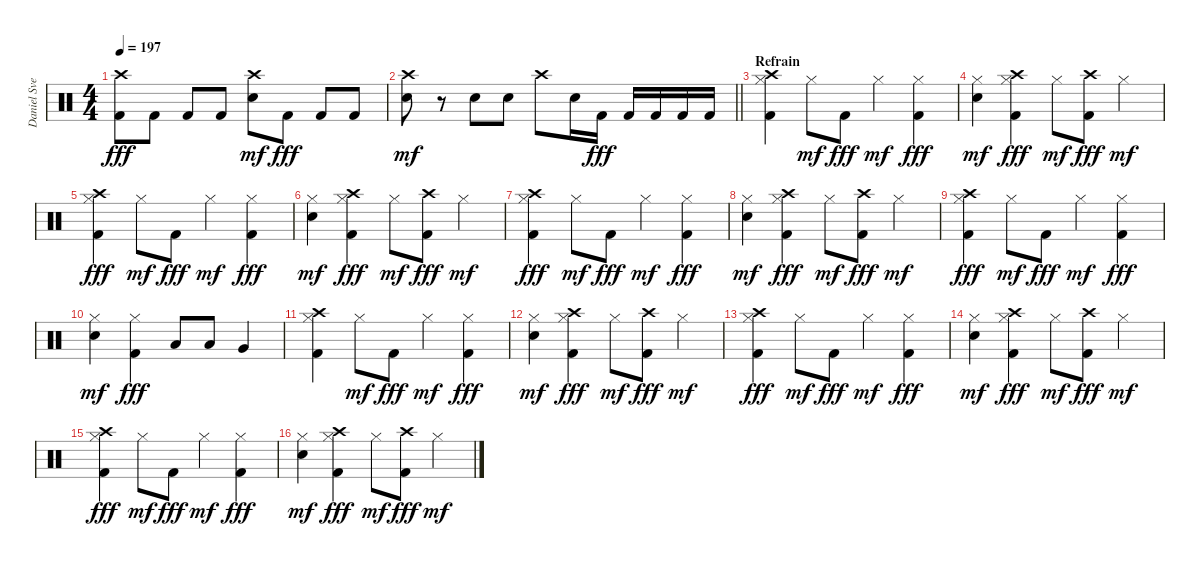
\track ("Daniel Svensson" "Daniel Sve") {instrument percussion}
\staff {score}
\articulation defaults
\ts (4 4)
\tempo 197
\clef neutral
\ks c
("Crash high (hit)" "Kick (hit) 2").8{dy fff} "Kick (hit) 2".8 "Kick (hit) 2".8 "Kick (hit) 2".8 ("Crash high (hit)" "Electric Snare (hit)").8{dy mf} "Kick (hit) 2".8{dy fff} "Kick (hit) 2".8 "Kick (hit) 2".8 |
\barLineRight lightlight
("Crash high (hit)" "Electric Snare (hit)").8{dy mf} r.8 "Electric Snare (hit)".8 "Electric Snare (hit)".8 "Crash high (hit)".8 "Electric Snare (hit)".16 "Kick (hit) 2".16{dy fff} "Kick (hit) 2".16 "Kick (hit) 2".16 "Kick (hit) 2".16 "Kick (hit) 2".16 |
\section ("" "Refrain")
("Crash high (hit)" "Hi-Hat (closed)" "Kick (hit) 2").4 "Hi-Hat (closed)".8{dy mf} "Kick (hit) 2".8{dy fff} "Hi-Hat (closed)".4{dy mf} ("Hi-Hat (closed)" "Kick (hit) 2").4{dy fff} |
("Hi-Hat (closed)" "Electric Snare (hit)").4{dy mf} ("Crash high (hit)" "Hi-Hat (closed)" "Kick (hit) 2").4{dy fff} "Hi-Hat (closed)".8{dy mf} ("Crash high (hit)" "Kick (hit) 2").8{dy fff} "Hi-Hat (closed)".4{dy mf} |
("Crash high (hit)" "Hi-Hat (closed)" "Kick (hit) 2").4{dy fff} "Hi-Hat (closed)".8{dy mf} "Kick (hit) 2".8{dy fff} "Hi-Hat (closed)".4{dy mf} ("Hi-Hat (closed)" "Kick (hit) 2").4{dy fff} |
("Hi-Hat (closed)" "Electric Snare (hit)").4{dy mf} ("Crash high (hit)" "Hi-Hat (closed)" "Kick (hit) 2").4{dy fff} "Hi-Hat (closed)".8{dy mf} ("Crash high (hit)" "Kick (hit) 2").8{dy fff} "Hi-Hat (closed)".4{dy mf} |
("Crash high (hit)" "Hi-Hat (closed)" "Kick (hit) 2").4{dy fff} "Hi-Hat (closed)".8{dy mf} "Kick (hit) 2".8{dy fff} "Hi-Hat (closed)".4{dy mf} ("Hi-Hat (closed)" "Kick (hit) 2").4{dy fff} |
("Hi-Hat (closed)" "Electric Snare (hit)").4{dy mf} ("Crash high (hit)" "Hi-Hat (closed)" "Kick (hit) 2").4{dy fff} "Hi-Hat (closed)".8{dy mf} ("Crash high (hit)" "Kick (hit) 2").8{dy fff} "Hi-Hat (closed)".4{dy mf} |
("Crash high (hit)" "Hi-Hat (closed)" "Kick (hit) 2").4{dy fff} "Hi-Hat (closed)".8{dy mf} "Kick (hit) 2".8{dy fff} "Hi-Hat (closed)".4{dy mf} ("Hi-Hat (closed)" "Kick (hit) 2").4{dy fff} |
("Hi-Hat (closed)" "Electric Snare (hit)").4{dy mf} ("Hi-Hat (closed)" "Kick (hit) 2").4{dy fff} "Low Tom (hit)".8 "Low Tom (hit)".8 "Very Low Tom (hit)".4 |
("Crash high (hit)" "Hi-Hat (closed)" "Kick (hit) 2").4 "Hi-Hat (closed)".8{dy mf} "Kick (hit) 2".8{dy fff} "Hi-Hat (closed)".4{dy mf} ("Hi-Hat (closed)" "Kick (hit) 2").4{dy fff} |
("Hi-Hat (closed)" "Electric Snare (hit)").4{dy mf} ("Crash high (hit)" "Hi-Hat (closed)" "Kick (hit) 2").4{dy fff} "Hi-Hat (closed)".8{dy mf} ("Crash high (hit)" "Kick (hit) 2").8{dy fff} "Hi-Hat (closed)".4{dy mf} |
("Crash high (hit)" "Hi-Hat (closed)" "Kick (hit) 2").4{dy fff} "Hi-Hat (closed)".8{dy mf} "Kick (hit) 2".8{dy fff} "Hi-Hat (closed)".4{dy mf} ("Hi-Hat (closed)" "Kick (hit) 2").4{dy fff} |
("Hi-Hat (closed)" "Electric Snare (hit)").4{dy mf} ("Crash high (hit)" "Hi-Hat (closed)" "Kick (hit) 2").4{dy fff} "Hi-Hat (closed)".8{dy mf} ("Crash high (hit)" "Kick (hit) 2").8{dy fff} "Hi-Hat (closed)".4{dy mf} |
("Crash high (hit)" "Hi-Hat (closed)" "Kick (hit) 2").4{dy fff} "Hi-Hat (closed)".8{dy mf} "Kick (hit) 2".8{dy fff} "Hi-Hat (closed)".4{dy mf} ("Hi-Hat (closed)" "Kick (hit) 2").4{dy fff} |
("Hi-Hat (closed)" "Electric Snare (hit)").4{dy mf} ("Crash high (hit)" "Hi-Hat (closed)" "Kick (hit) 2").4{dy fff} "Hi-Hat (closed)".8{dy mf} ("Crash high (hit)" "Kick (hit) 2").8{dy fff} "Hi-Hat (closed)".4{dy mf}
